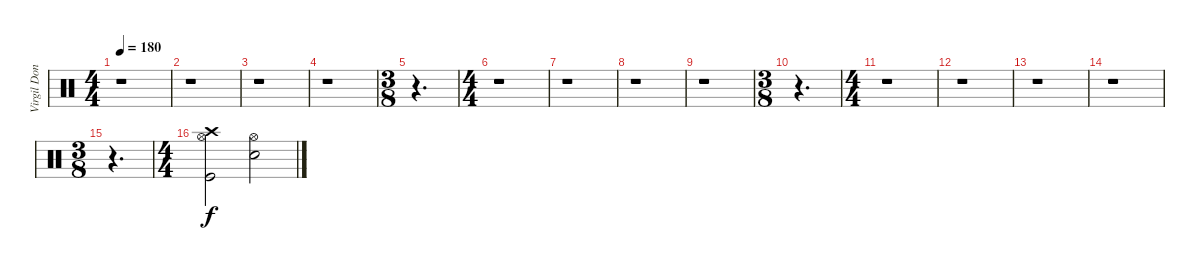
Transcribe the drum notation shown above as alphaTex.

\track ("Virgil Donati" "Virgil Don") {instrument percussion}
\staff {score}
\articulation defaults
\ts (4 4)
\tempo 180
\clef neutral
\ks c
r.1{dy f} |
r.1 |
r.1 |
r.1 |
\ts (3 8)
r.4{d} |
\ts (4 4)
r.1 |
r.1 |
r.1 |
r.1 |
\ts (3 8)
r.4{d} |
\ts (4 4)
r.1 |
r.1 |
r.1 |
r.1 |
\ts (3 8)
r.4{d} |
\ts (4 4)
("Crash high (hit)" "Hi-Hat (open)" "Kick (hit)").2{volume 13} ("Hi-Hat (open)" "Electric Snare (hit)").2
